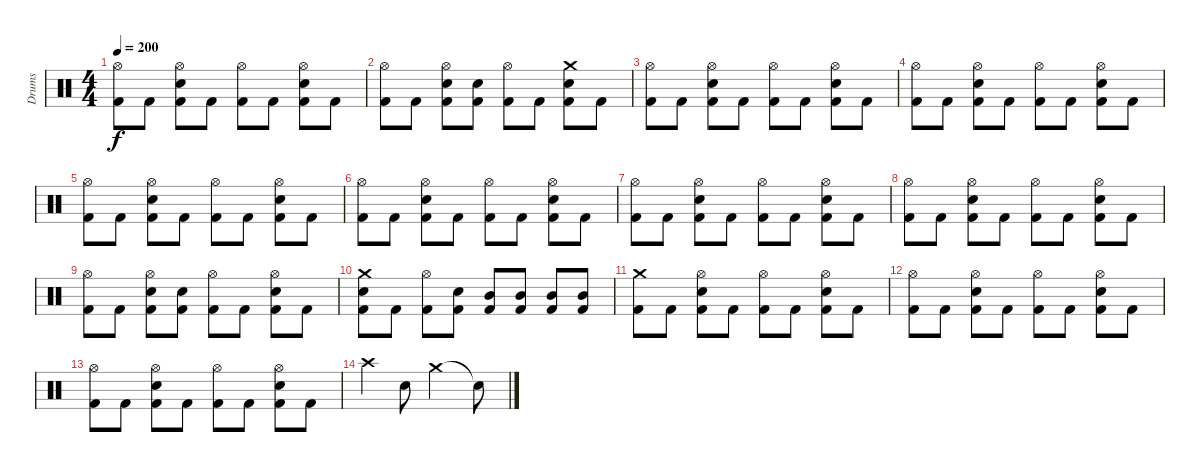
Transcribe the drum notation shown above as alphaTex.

\track ("Drums" "Drums") {instrument percussion}
\staff {score}
\articulation defaults
\ts (4 4)
\tempo 200
\clef neutral
\ks c
("Hi-Hat (open)" "Kick (hit) 2").8{dy f} "Kick (hit) 2".8 ("Hi-Hat (open)" "Snare (hit) 2" "Kick (hit) 2").8 "Kick (hit) 2".8 ("Hi-Hat (open)" "Kick (hit) 2").8 "Kick (hit) 2".8 ("Hi-Hat (open)" "Snare (hit) 2" "Kick (hit) 2").8 "Kick (hit) 2".8 |
("Hi-Hat (open)" "Kick (hit) 2").8 "Kick (hit) 2".8 ("Hi-Hat (open)" "Snare (hit) 2" "Kick (hit) 2").8 ("Snare (hit) 2" "Kick (hit) 2").8 ("Hi-Hat (open)" "Kick (hit) 2").8 "Kick (hit) 2".8 ("Crash medium (hit)" "Snare (hit) 2" "Kick (hit) 2").8 "Kick (hit) 2".8 |
("Hi-Hat (open)" "Kick (hit) 2").8 "Kick (hit) 2".8 ("Hi-Hat (open)" "Snare (hit) 2" "Kick (hit) 2").8 "Kick (hit) 2".8 ("Hi-Hat (open)" "Kick (hit) 2").8 "Kick (hit) 2".8 ("Hi-Hat (open)" "Snare (hit) 2" "Kick (hit) 2").8 "Kick (hit) 2".8 |
("Hi-Hat (open)" "Kick (hit) 2").8 "Kick (hit) 2".8 ("Hi-Hat (open)" "Snare (hit) 2" "Kick (hit) 2").8 "Kick (hit) 2".8 ("Hi-Hat (open)" "Kick (hit) 2").8 "Kick (hit) 2".8 ("Hi-Hat (open)" "Snare (hit) 2" "Kick (hit) 2").8 "Kick (hit) 2".8 |
("Hi-Hat (open)" "Kick (hit) 2").8 "Kick (hit) 2".8 ("Hi-Hat (open)" "Snare (hit) 2" "Kick (hit) 2").8 "Kick (hit) 2".8 ("Hi-Hat (open)" "Kick (hit) 2").8 "Kick (hit) 2".8 ("Hi-Hat (open)" "Snare (hit) 2" "Kick (hit) 2").8 "Kick (hit) 2".8 |
("Hi-Hat (open)" "Kick (hit) 2").8 "Kick (hit) 2".8 ("Hi-Hat (open)" "Snare (hit) 2" "Kick (hit) 2").8 "Kick (hit) 2".8 ("Hi-Hat (open)" "Kick (hit) 2").8 "Kick (hit) 2".8 ("Hi-Hat (open)" "Snare (hit) 2" "Kick (hit) 2").8 "Kick (hit) 2".8 |
("Hi-Hat (open)" "Kick (hit) 2").8 "Kick (hit) 2".8 ("Hi-Hat (open)" "Snare (hit) 2" "Kick (hit) 2").8 "Kick (hit) 2".8 ("Hi-Hat (open)" "Kick (hit) 2").8 "Kick (hit) 2".8 ("Hi-Hat (open)" "Snare (hit) 2" "Kick (hit) 2").8 "Kick (hit) 2".8 |
("Hi-Hat (open)" "Kick (hit) 2").8 "Kick (hit) 2".8 ("Hi-Hat (open)" "Snare (hit) 2" "Kick (hit) 2").8 "Kick (hit) 2".8 ("Hi-Hat (open)" "Kick (hit) 2").8 "Kick (hit) 2".8 ("Hi-Hat (open)" "Snare (hit) 2" "Kick (hit) 2").8 "Kick (hit) 2".8 |
("Hi-Hat (open)" "Kick (hit) 2").8 "Kick (hit) 2".8 ("Hi-Hat (open)" "Snare (hit) 2" "Kick (hit) 2").8 ("Snare (hit) 2" "Kick (hit) 2").8 ("Hi-Hat (open)" "Kick (hit) 2").8 "Kick (hit) 2".8 ("Hi-Hat (open)" "Snare (hit) 2" "Kick (hit) 2").8 "Kick (hit) 2".8 |
("Crash medium (hit)" "Snare (hit) 2" "Kick (hit) 2").8 "Kick (hit) 2".8 ("Hi-Hat (open)" "Kick (hit) 2").8 ("Snare (hit) 2" "Kick (hit) 2").8 ("Mid Tom (hit)" "Kick (hit) 2").8 ("Mid Tom (hit)" "Kick (hit) 2").8 ("Mid Tom (hit)" "Kick (hit) 2").8 ("Mid Tom (hit)" "Kick (hit) 2").8 |
("Crash medium (hit)" "Kick (hit) 2").8 "Kick (hit) 2".8 ("Hi-Hat (open)" "Snare (hit) 2" "Kick (hit) 2").8 "Kick (hit) 2".8 ("Hi-Hat (open)" "Kick (hit) 2").8 "Kick (hit) 2".8 ("Hi-Hat (open)" "Snare (hit) 2" "Kick (hit) 2").8 "Kick (hit) 2".8 |
("Hi-Hat (open)" "Kick (hit) 2").8 "Kick (hit) 2".8 ("Hi-Hat (open)" "Snare (hit) 2" "Kick (hit) 2").8 "Kick (hit) 2".8 ("Hi-Hat (open)" "Kick (hit) 2").8 "Kick (hit) 2".8 ("Hi-Hat (open)" "Snare (hit) 2" "Kick (hit) 2").8 "Kick (hit) 2".8 |
("Hi-Hat (open)" "Kick (hit) 2").8 "Kick (hit) 2".8 ("Hi-Hat (open)" "Snare (hit) 2" "Kick (hit) 2").8 "Kick (hit) 2".8 ("Hi-Hat (open)" "Kick (hit) 2").8 "Kick (hit) 2".8 ("Hi-Hat (open)" "Snare (hit) 2" "Kick (hit) 2").8 "Kick (hit) 2".8 |
"Crash high (hit)".4 "Snare (hit) 2".8 "Crash medium (hit)".2 "Snare (hit)"{t}.8
